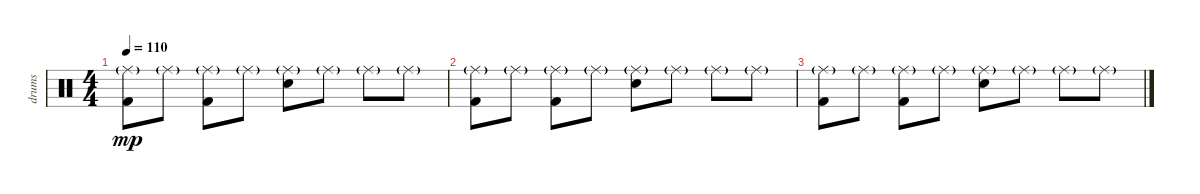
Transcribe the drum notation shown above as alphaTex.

\track ("drums" "drums") {instrument percussion}
\staff {score}
\articulation defaults
\ts (4 4)
\tempo 110
\clef neutral
\ks c
("Kick (hit) 2" "Ride (middle)"{g}).8{dy mp} "Ride (middle)"{g}.8 ("Kick (hit) 2" "Ride (middle)"{g}).8 "Ride (middle)"{g}.8 ("Electric Snare (hit)" "Ride (middle)"{g}).8 "Ride (middle)"{g}.8 "Ride (middle)"{g}.8 "Ride (middle)"{g}.8 |
("Kick (hit) 2" "Ride (middle)"{g}).8 "Ride (middle)"{g}.8 ("Kick (hit) 2" "Ride (middle)"{g}).8 "Ride (middle)"{g}.8 ("Electric Snare (hit)" "Ride (middle)"{g}).8 "Ride (middle)"{g}.8 "Ride (middle)"{g}.8 "Ride (middle)"{g}.8 |
("Kick (hit) 2" "Ride (middle)"{g}).8 "Ride (middle)"{g}.8 ("Kick (hit) 2" "Ride (middle)"{g}).8 "Ride (middle)"{g}.8 ("Electric Snare (hit)" "Ride (middle)"{g}).8 "Ride (middle)"{g}.8 "Ride (middle)"{g}.8 "Ride (middle)"{g}.8
